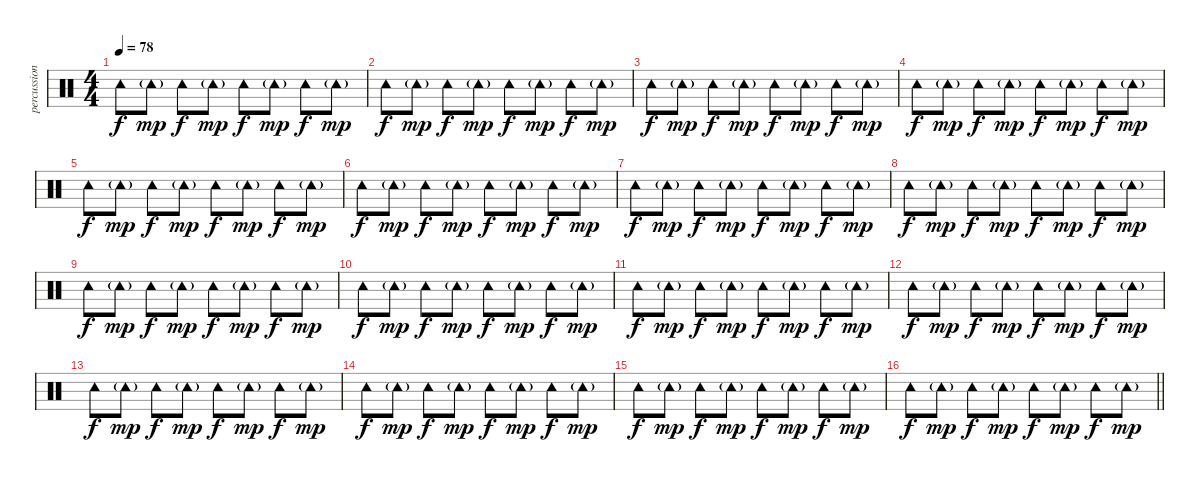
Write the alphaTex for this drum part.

\track ("percussion" "percussion") {instrument percussion}
\staff {score}
\articulation defaults
\ts (4 4)
\tempo 78
\clef neutral
\ks c "Tambourine (hit)".8{dy f} "Tambourine (hit)"{g}.8{dy mp} "Tambourine (hit)".8{dy f} "Tambourine (hit)"{g}.8{dy mp} "Tambourine (hit)".8{dy f} "Tambourine (hit)"{g}.8{dy mp} "Tambourine (hit)".8{dy f} "Tambourine (hit)"{g}.8{dy mp}
|
"Tambourine (hit)".8{dy f} "Tambourine (hit)"{g}.8{dy mp} "Tambourine (hit)".8{dy f} "Tambourine (hit)"{g}.8{dy mp} "Tambourine (hit)".8{dy f} "Tambourine (hit)"{g}.8{dy mp} "Tambourine (hit)".8{dy f} "Tambourine (hit)"{g}.8{dy mp} |
"Tambourine (hit)".8{dy f} "Tambourine (hit)"{g}.8{dy mp} "Tambourine (hit)".8{dy f} "Tambourine (hit)"{g}.8{dy mp} "Tambourine (hit)".8{dy f} "Tambourine (hit)"{g}.8{dy mp} "Tambourine (hit)".8{dy f} "Tambourine (hit)"{g}.8{dy mp} |
"Tambourine (hit)".8{dy f} "Tambourine (hit)"{g}.8{dy mp} "Tambourine (hit)".8{dy f} "Tambourine (hit)"{g}.8{dy mp} "Tambourine (hit)".8{dy f} "Tambourine (hit)"{g}.8{dy mp} "Tambourine (hit)".8{dy f} "Tambourine (hit)"{g}.8{dy mp} |
"Tambourine (hit)".8{dy f} "Tambourine (hit)"{g}.8{dy mp} "Tambourine (hit)".8{dy f} "Tambourine (hit)"{g}.8{dy mp} "Tambourine (hit)".8{dy f} "Tambourine (hit)"{g}.8{dy mp} "Tambourine (hit)".8{dy f} "Tambourine (hit)"{g}.8{dy mp} |
"Tambourine (hit)".8{dy f} "Tambourine (hit)"{g}.8{dy mp} "Tambourine (hit)".8{dy f} "Tambourine (hit)"{g}.8{dy mp} "Tambourine (hit)".8{dy f} "Tambourine (hit)"{g}.8{dy mp} "Tambourine (hit)".8{dy f} "Tambourine (hit)"{g}.8{dy mp} |
"Tambourine (hit)".8{dy f} "Tambourine (hit)"{g}.8{dy mp} "Tambourine (hit)".8{dy f} "Tambourine (hit)"{g}.8{dy mp} "Tambourine (hit)".8{dy f} "Tambourine (hit)"{g}.8{dy mp} "Tambourine (hit)".8{dy f} "Tambourine (hit)"{g}.8{dy mp} |
"Tambourine (hit)".8{dy f} "Tambourine (hit)"{g}.8{dy mp} "Tambourine (hit)".8{dy f} "Tambourine (hit)"{g}.8{dy mp} "Tambourine (hit)".8{dy f} "Tambourine (hit)"{g}.8{dy mp} "Tambourine (hit)".8{dy f} "Tambourine (hit)"{g}.8{dy mp} |
"Tambourine (hit)".8{dy f} "Tambourine (hit)"{g}.8{dy mp} "Tambourine (hit)".8{dy f} "Tambourine (hit)"{g}.8{dy mp} "Tambourine (hit)".8{dy f} "Tambourine (hit)"{g}.8{dy mp} "Tambourine (hit)".8{dy f} "Tambourine (hit)"{g}.8{dy mp} |
"Tambourine (hit)".8{dy f} "Tambourine (hit)"{g}.8{dy mp} "Tambourine (hit)".8{dy f} "Tambourine (hit)"{g}.8{dy mp} "Tambourine (hit)".8{dy f} "Tambourine (hit)"{g}.8{dy mp} "Tambourine (hit)".8{dy f} "Tambourine (hit)"{g}.8{dy mp} |
"Tambourine (hit)".8{dy f} "Tambourine (hit)"{g}.8{dy mp} "Tambourine (hit)".8{dy f} "Tambourine (hit)"{g}.8{dy mp} "Tambourine (hit)".8{dy f} "Tambourine (hit)"{g}.8{dy mp} "Tambourine (hit)".8{dy f} "Tambourine (hit)"{g}.8{dy mp} |
"Tambourine (hit)".8{dy f} "Tambourine (hit)"{g}.8{dy mp} "Tambourine (hit)".8{dy f} "Tambourine (hit)"{g}.8{dy mp} "Tambourine (hit)".8{dy f} "Tambourine (hit)"{g}.8{dy mp} "Tambourine (hit)".8{dy f} "Tambourine (hit)"{g}.8{dy mp} |
"Tambourine (hit)".8{dy f} "Tambourine (hit)"{g}.8{dy mp} "Tambourine (hit)".8{dy f} "Tambourine (hit)"{g}.8{dy mp} "Tambourine (hit)".8{dy f} "Tambourine (hit)"{g}.8{dy mp} "Tambourine (hit)".8{dy f} "Tambourine (hit)"{g}.8{dy mp} |
"Tambourine (hit)".8{dy f} "Tambourine (hit)"{g}.8{dy mp} "Tambourine (hit)".8{dy f} "Tambourine (hit)"{g}.8{dy mp} "Tambourine (hit)".8{dy f} "Tambourine (hit)"{g}.8{dy mp} "Tambourine (hit)".8{dy f} "Tambourine (hit)"{g}.8{dy mp} |
"Tambourine (hit)".8{dy f} "Tambourine (hit)"{g}.8{dy mp} "Tambourine (hit)".8{dy f} "Tambourine (hit)"{g}.8{dy mp} "Tambourine (hit)".8{dy f} "Tambourine (hit)"{g}.8{dy mp} "Tambourine (hit)".8{dy f} "Tambourine (hit)"{g}.8{dy mp} |
\barLineRight lightlight "Tambourine (hit)".8{dy f} "Tambourine (hit)"{g}.8{dy mp} "Tambourine (hit)".8{dy f} "Tambourine (hit)"{g}.8{dy mp} "Tambourine (hit)".8{dy f} "Tambourine (hit)"{g}.8{dy mp} "Tambourine (hit)".8{dy f} "Tambourine (hit)"{g}.8{dy mp}
